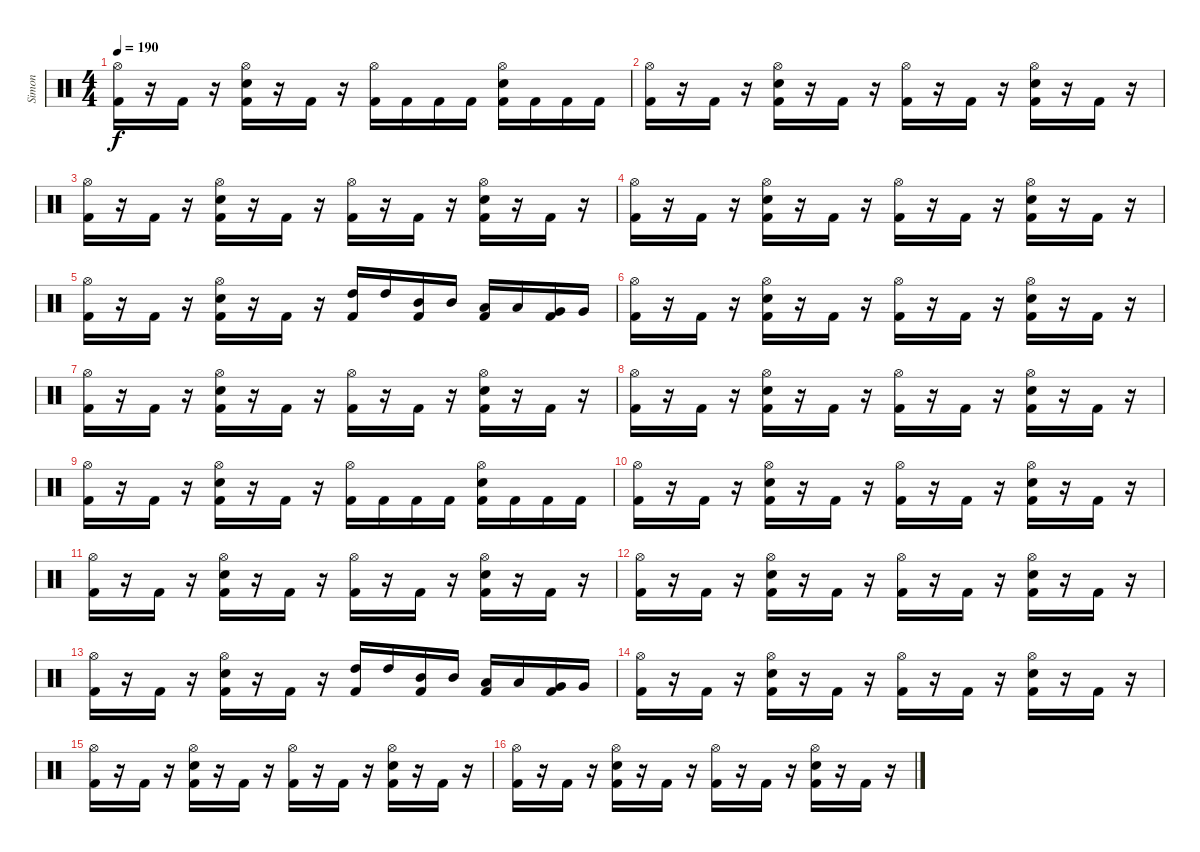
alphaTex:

\track ("Simon" "Simon") {instrument percussion}
\staff {score}
\articulation defaults
\ts (4 4)
\tempo 190
\clef neutral
\ks c
("Hi-Hat (open)" "Kick (hit) 2").16{dy f} r.16 "Kick (hit) 2".16 r.16 ("Hi-Hat (open)" "Snare (hit) 2" "Kick (hit) 2").16 r.16 "Kick (hit) 2".16 r.16 ("Hi-Hat (open)" "Kick (hit) 2").16 "Kick (hit) 2".16 "Kick (hit) 2".16 "Kick (hit) 2".16 ("Hi-Hat (open)" "Snare (hit) 2" "Kick (hit) 2").16 "Kick (hit) 2".16 "Kick (hit) 2".16 "Kick (hit) 2".16 |
("Hi-Hat (open)" "Kick (hit) 2").16 r.16 "Kick (hit) 2".16 r.16 ("Hi-Hat (open)" "Snare (hit) 2" "Kick (hit) 2").16 r.16 "Kick (hit) 2".16 r.16 ("Hi-Hat (open)" "Kick (hit) 2").16 r.16 "Kick (hit) 2".16 r.16 ("Hi-Hat (open)" "Snare (hit) 2" "Kick (hit) 2").16 r.16 "Kick (hit) 2".16 r.16 |
("Hi-Hat (open)" "Kick (hit) 2").16 r.16 "Kick (hit) 2".16 r.16 ("Hi-Hat (open)" "Snare (hit) 2" "Kick (hit) 2").16 r.16 "Kick (hit) 2".16 r.16 ("Hi-Hat (open)" "Kick (hit) 2").16 r.16 "Kick (hit) 2".16 r.16 ("Hi-Hat (open)" "Snare (hit) 2" "Kick (hit) 2").16 r.16 "Kick (hit) 2".16 r.16 |
("Hi-Hat (open)" "Kick (hit) 2").16 r.16 "Kick (hit) 2".16 r.16 ("Hi-Hat (open)" "Snare (hit) 2" "Kick (hit) 2").16 r.16 "Kick (hit) 2".16 r.16 ("Hi-Hat (open)" "Kick (hit) 2").16 r.16 "Kick (hit) 2".16 r.16 ("Hi-Hat (open)" "Snare (hit) 2" "Kick (hit) 2").16 r.16 "Kick (hit) 2".16 r.16 |
("Hi-Hat (open)" "Kick (hit) 2").16 r.16 "Kick (hit) 2".16 r.16 ("Hi-Hat (open)" "Snare (hit) 2" "Kick (hit) 2").16 r.16 "Kick (hit) 2".16 r.16 ("High Tom (hit)" "Kick (hit) 2").16 "High Tom (hit)".16 ("Mid Tom (hit)" "Kick (hit) 2").16 "Mid Tom (hit)".16 ("Low Tom (hit)" "Kick (hit) 2").16 "Low Tom (hit)".16 ("Very Low Tom (hit)" "Kick (hit) 2").16 "Very Low Tom (hit)".16 |
("Hi-Hat (open)" "Kick (hit) 2").16 r.16 "Kick (hit) 2".16 r.16 ("Hi-Hat (open)" "Snare (hit) 2" "Kick (hit) 2").16 r.16 "Kick (hit) 2".16 r.16 ("Hi-Hat (open)" "Kick (hit) 2").16 r.16 "Kick (hit) 2".16 r.16 ("Hi-Hat (open)" "Snare (hit) 2" "Kick (hit) 2").16 r.16 "Kick (hit) 2".16 r.16 |
("Hi-Hat (open)" "Kick (hit) 2").16 r.16 "Kick (hit) 2".16 r.16 ("Hi-Hat (open)" "Snare (hit) 2" "Kick (hit) 2").16 r.16 "Kick (hit) 2".16 r.16 ("Hi-Hat (open)" "Kick (hit) 2").16 r.16 "Kick (hit) 2".16 r.16 ("Hi-Hat (open)" "Snare (hit) 2" "Kick (hit) 2").16 r.16 "Kick (hit) 2".16 r.16 |
("Hi-Hat (open)" "Kick (hit) 2").16 r.16 "Kick (hit) 2".16 r.16 ("Hi-Hat (open)" "Snare (hit) 2" "Kick (hit) 2").16 r.16 "Kick (hit) 2".16 r.16 ("Hi-Hat (open)" "Kick (hit) 2").16 r.16 "Kick (hit) 2".16 r.16 ("Hi-Hat (open)" "Snare (hit) 2" "Kick (hit) 2").16 r.16 "Kick (hit) 2".16 r.16 |
("Hi-Hat (open)" "Kick (hit) 2").16 r.16 "Kick (hit) 2".16 r.16 ("Hi-Hat (open)" "Snare (hit) 2" "Kick (hit) 2").16 r.16 "Kick (hit) 2".16 r.16 ("Hi-Hat (open)" "Kick (hit) 2").16 "Kick (hit) 2".16 "Kick (hit) 2".16 "Kick (hit) 2".16 ("Hi-Hat (open)" "Snare (hit) 2" "Kick (hit) 2").16 "Kick (hit) 2".16 "Kick (hit) 2".16 "Kick (hit) 2".16 |
("Hi-Hat (open)" "Kick (hit) 2").16 r.16 "Kick (hit) 2".16 r.16 ("Hi-Hat (open)" "Snare (hit) 2" "Kick (hit) 2").16 r.16 "Kick (hit) 2".16 r.16 ("Hi-Hat (open)" "Kick (hit) 2").16 r.16 "Kick (hit) 2".16 r.16 ("Hi-Hat (open)" "Snare (hit) 2" "Kick (hit) 2").16 r.16 "Kick (hit) 2".16 r.16 |
("Hi-Hat (open)" "Kick (hit) 2").16 r.16 "Kick (hit) 2".16 r.16 ("Hi-Hat (open)" "Snare (hit) 2" "Kick (hit) 2").16 r.16 "Kick (hit) 2".16 r.16 ("Hi-Hat (open)" "Kick (hit) 2").16 r.16 "Kick (hit) 2".16 r.16 ("Hi-Hat (open)" "Snare (hit) 2" "Kick (hit) 2").16 r.16 "Kick (hit) 2".16 r.16 |
("Hi-Hat (open)" "Kick (hit) 2").16 r.16 "Kick (hit) 2".16 r.16 ("Hi-Hat (open)" "Snare (hit) 2" "Kick (hit) 2").16 r.16 "Kick (hit) 2".16 r.16 ("Hi-Hat (open)" "Kick (hit) 2").16 r.16 "Kick (hit) 2".16 r.16 ("Hi-Hat (open)" "Snare (hit) 2" "Kick (hit) 2").16 r.16 "Kick (hit) 2".16 r.16 |
("Hi-Hat (open)" "Kick (hit) 2").16 r.16 "Kick (hit) 2".16 r.16 ("Hi-Hat (open)" "Snare (hit) 2" "Kick (hit) 2").16 r.16 "Kick (hit) 2".16 r.16 ("High Tom (hit)" "Kick (hit) 2").16 "High Tom (hit)".16 ("Mid Tom (hit)" "Kick (hit) 2").16 "Mid Tom (hit)".16 ("Low Tom (hit)" "Kick (hit) 2").16 "Low Tom (hit)".16 ("Very Low Tom (hit)" "Kick (hit) 2").16 "Very Low Tom (hit)".16 |
("Hi-Hat (open)" "Kick (hit) 2").16 r.16 "Kick (hit) 2".16 r.16 ("Hi-Hat (open)" "Snare (hit) 2" "Kick (hit) 2").16 r.16 "Kick (hit) 2".16 r.16 ("Hi-Hat (open)" "Kick (hit) 2").16 r.16 "Kick (hit) 2".16 r.16 ("Hi-Hat (open)" "Snare (hit) 2" "Kick (hit) 2").16 r.16 "Kick (hit) 2".16 r.16 |
("Hi-Hat (open)" "Kick (hit) 2").16 r.16 "Kick (hit) 2".16 r.16 ("Hi-Hat (open)" "Snare (hit) 2" "Kick (hit) 2").16 r.16 "Kick (hit) 2".16 r.16 ("Hi-Hat (open)" "Kick (hit) 2").16 r.16 "Kick (hit) 2".16 r.16 ("Hi-Hat (open)" "Snare (hit) 2" "Kick (hit) 2").16 r.16 "Kick (hit) 2".16 r.16 |
("Hi-Hat (open)" "Kick (hit) 2").16 r.16 "Kick (hit) 2".16 r.16 ("Hi-Hat (open)" "Snare (hit) 2" "Kick (hit) 2").16 r.16 "Kick (hit) 2".16 r.16 ("Hi-Hat (open)" "Kick (hit) 2").16 r.16 "Kick (hit) 2".16 r.16 ("Hi-Hat (open)" "Snare (hit) 2" "Kick (hit) 2").16 r.16 "Kick (hit) 2".16 r.16
